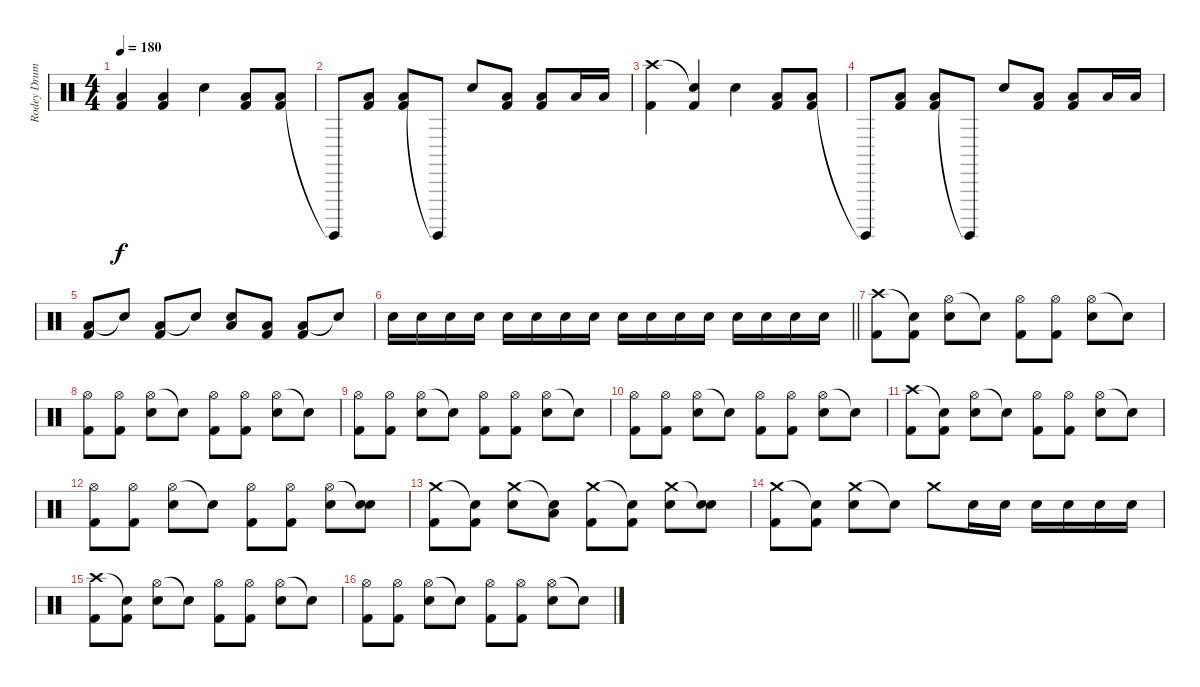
\track ("Rodey Drums" "Rodey Drum") {instrument percussion}
\staff {score}
\articulation defaults
\ts (4 4)
\tempo 180
\clef neutral
\ks c
("Low Tom (hit)" "Kick (hit) 2").4{dy f} ("Low Tom (hit)" "Kick (hit) 2").4 "Electric Snare (hit)".4 ("Low Tom (hit)" "Kick (hit) 2").8 ("Low Tom (hit)" "Kick (hit) 2").8 |
"Surdo (hit)"{t}.8 ("Low Tom (hit)" "Kick (hit) 2").8 ("Low Tom (hit)" "Kick (hit) 2").8 "Surdo (hit)"{t}.8 "Electric Snare (hit)".8 ("Low Tom (hit)" "Kick (hit) 2").8 ("Low Tom (hit)" "Kick (hit) 2").8 "Low Tom (hit)".16 "Low Tom (hit)".16 |
("Crash high (hit)" "Kick (hit) 2").4 ("Snare (hit)"{t} "Kick (hit) 2").4 "Electric Snare (hit)".4 ("Low Tom (hit)" "Kick (hit) 2").8 ("Low Tom (hit)" "Kick (hit) 2").8 |
"Surdo (hit)"{t}.8 ("Low Tom (hit)" "Kick (hit) 2").8 ("Low Tom (hit)" "Kick (hit) 2").8 "Surdo (hit)"{t}.8 "Electric Snare (hit)".8 ("Low Tom (hit)" "Kick (hit) 2").8 ("Low Tom (hit)" "Kick (hit) 2").8 "Low Tom (hit)".16 "Low Tom (hit)".16 |
("Low Tom (hit)" "Kick (hit) 2").8 "Snare (hit)"{t}.8 ("Low Tom (hit)" "Kick (hit) 2").8 "Snare (hit)"{t}.8 ("Low Tom (hit)" "Electric Snare (hit)").8 ("Low Tom (hit)" "Kick (hit) 2").8 ("Low Tom (hit)" "Kick (hit) 2").8 "Electric Snare (hit)"{t}.8 |
\barLineRight lightlight "Electric Snare (hit)".16 "Electric Snare (hit)".16 "Electric Snare (hit)".16 "Electric Snare (hit)".16 "Electric Snare (hit)".16 "Electric Snare (hit)".16 "Electric Snare (hit)".16 "Electric Snare (hit)".16 "Electric Snare (hit)".16 "Electric Snare (hit)".16 "Electric Snare (hit)".16 "Electric Snare (hit)".16 "Electric Snare (hit)".16 "Electric Snare (hit)".16 "Electric Snare (hit)".16 "Electric Snare (hit)".16
|
("Crash high (hit)" "Kick (hit) 2").8 ("Snare (hit)"{t} "Kick (hit) 2").8 ("Hi-Hat (open)" "Electric Snare (hit)").8 "Snare (hit)"{t}.8 ("Hi-Hat (open)" "Kick (hit) 2").8 ("Hi-Hat (open)" "Kick (hit) 2").8 ("Hi-Hat (open)" "Electric Snare (hit)").8 "Snare (hit)"{t}.8 |
("Hi-Hat (open)" "Kick (hit) 2").8 ("Hi-Hat (open)" "Kick (hit) 2").8 ("Hi-Hat (open)" "Electric Snare (hit)").8 "Snare (hit)"{t}.8 ("Hi-Hat (open)" "Kick (hit) 2").8 ("Hi-Hat (open)" "Kick (hit) 2").8 ("Hi-Hat (open)" "Electric Snare (hit)").8 "Snare (hit)"{t}.8 |
("Hi-Hat (open)" "Kick (hit) 2").8 ("Hi-Hat (open)" "Kick (hit) 2").8 ("Hi-Hat (open)" "Electric Snare (hit)").8 "Snare (hit)"{t}.8 ("Hi-Hat (open)" "Kick (hit) 2").8 ("Hi-Hat (open)" "Kick (hit) 2").8 ("Hi-Hat (open)" "Electric Snare (hit)").8 "Snare (hit)"{t}.8 |
("Hi-Hat (open)" "Kick (hit) 2").8 ("Hi-Hat (open)" "Kick (hit) 2").8 ("Hi-Hat (open)" "Electric Snare (hit)").8 "Snare (hit)"{t}.8 ("Hi-Hat (open)" "Kick (hit) 2").8 ("Hi-Hat (open)" "Kick (hit) 2").8 ("Hi-Hat (open)" "Electric Snare (hit)").8 "Snare (hit)"{t}.8 |
("Crash high (hit)" "Kick (hit) 2").8 ("Snare (hit)"{t} "Kick (hit) 2").8 ("Hi-Hat (open)" "Electric Snare (hit)").8 "Snare (hit)"{t}.8 ("Hi-Hat (open)" "Kick (hit) 2").8 ("Hi-Hat (open)" "Kick (hit) 2").8 ("Hi-Hat (open)" "Electric Snare (hit)").8 "Snare (hit)"{t}.8 |
("Hi-Hat (open)" "Kick (hit) 2").8 ("Hi-Hat (open)" "Kick (hit) 2").8 ("Hi-Hat (open)" "Electric Snare (hit)").8 "Snare (hit)"{t}.8 ("Hi-Hat (open)" "Kick (hit) 2").8 ("Hi-Hat (open)" "Kick (hit) 2").8 ("Hi-Hat (open)" "Electric Snare (hit)").8 ("Snare (hit)"{t} "Electric Snare (hit)").8 |
("Crash medium (hit)" "Kick (hit) 2").8 ("Snare (hit)"{t} "Kick (hit) 2").8 ("Crash medium (hit)" "Electric Snare (hit)").8 ("Snare (hit)"{t} "Low Floor Tom (hit)").8 ("Crash medium (hit)" "Kick (hit) 2").8 ("Snare (hit)"{t} "Kick (hit) 2").8 ("Crash medium (hit)" "Electric Snare (hit)").8 ("Snare (hit)"{t} "Electric Snare (hit)").8 |
("Crash medium (hit)" "Kick (hit) 2").8 ("Snare (hit)"{t} "Kick (hit) 2").8 ("Crash medium (hit)" "Electric Snare (hit)").8 "Snare (hit)"{t}.8 "Crash medium (hit)".8 "Electric Snare (hit)".16 "Electric Snare (hit)".16 "Electric Snare (hit)".16 "Electric Snare (hit)".16 "Electric Snare (hit)".16 "Electric Snare (hit)".16 |
("Crash high (hit)" "Kick (hit) 2").8 ("Snare (hit)"{t} "Kick (hit) 2").8 ("Hi-Hat (open)" "Electric Snare (hit)").8 "Snare (hit)"{t}.8 ("Hi-Hat (open)" "Kick (hit) 2").8 ("Hi-Hat (open)" "Kick (hit) 2").8 ("Hi-Hat (open)" "Electric Snare (hit)").8 "Snare (hit)"{t}.8 |
("Hi-Hat (open)" "Kick (hit) 2").8 ("Hi-Hat (open)" "Kick (hit) 2").8 ("Hi-Hat (open)" "Electric Snare (hit)").8 "Snare (hit)"{t}.8 ("Hi-Hat (open)" "Kick (hit) 2").8 ("Hi-Hat (open)" "Kick (hit) 2").8 ("Hi-Hat (open)" "Electric Snare (hit)").8 "Snare (hit)"{t}.8
